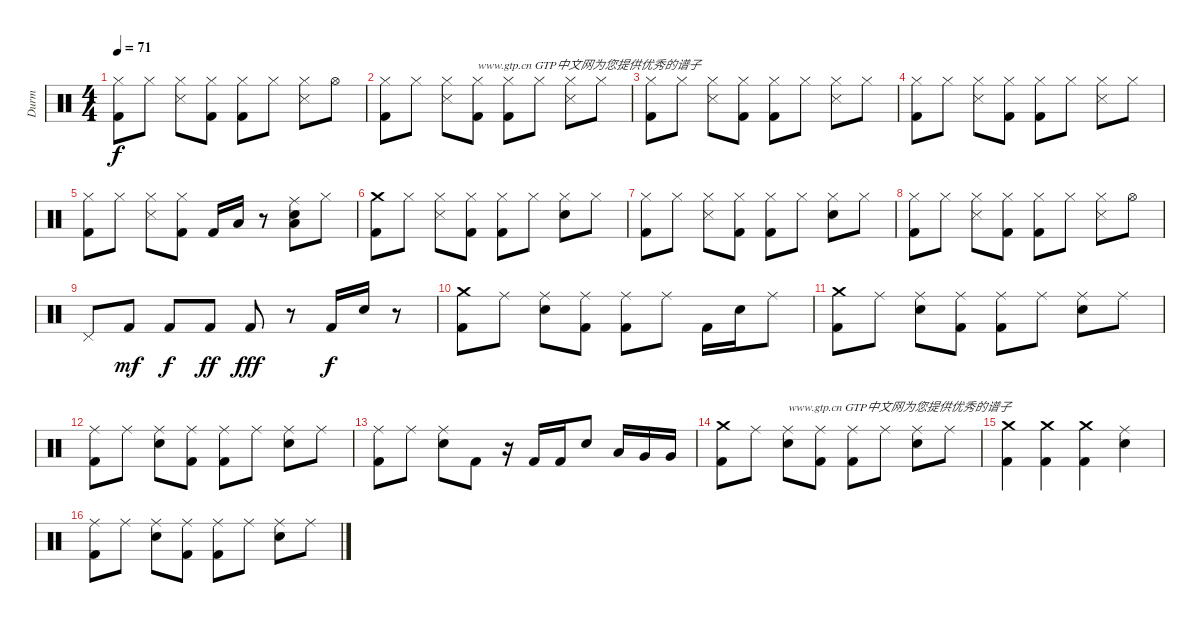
\track ("Durm" "Durm") {instrument percussion}
\staff {score}
\articulation defaults
\ts (4 4)
\tempo 71
\clef neutral
\ks c
("Kick (hit) 2" "Hi-Hat (closed)").8{dy f} "Hi-Hat (closed)".8 ("Snare (side stick) 3" "Hi-Hat (closed)").8 ("Kick (hit) 2" "Hi-Hat (closed)").8 ("Kick (hit) 2" "Hi-Hat (closed)").8 "Hi-Hat (closed)".8 ("Snare (side stick) 3" "Hi-Hat (closed)").8 "Hi-Hat (open)".8 |
("Kick (hit) 2" "Hi-Hat (closed)").8 "Hi-Hat (closed)".8 ("Snare (side stick) 3" "Hi-Hat (closed)").8 ("Kick (hit) 2" "Hi-Hat (closed)").8{txt "www.gtp.cn GTP中文网为您提供优秀的谱子"} ("Kick (hit) 2" "Hi-Hat (closed)").8 "Hi-Hat (closed)".8 ("Snare (side stick) 3" "Hi-Hat (closed)").8 "Hi-Hat (closed)".8 |
("Kick (hit) 2" "Hi-Hat (closed)").8 "Hi-Hat (closed)".8 ("Snare (side stick) 3" "Hi-Hat (closed)").8 ("Kick (hit) 2" "Hi-Hat (closed)").8 ("Kick (hit) 2" "Hi-Hat (closed)").8 "Hi-Hat (closed)".8 ("Snare (side stick) 3" "Hi-Hat (closed)").8 "Hi-Hat (closed)".8 |
("Kick (hit) 2" "Hi-Hat (closed)").8 "Hi-Hat (closed)".8 ("Snare (side stick) 3" "Hi-Hat (closed)").8 ("Kick (hit) 2" "Hi-Hat (closed)").8 ("Kick (hit) 2" "Hi-Hat (closed)").8 "Hi-Hat (closed)".8 ("Snare (side stick) 3" "Hi-Hat (closed)").8 "Hi-Hat (closed)".8 |
("Kick (hit) 2" "Hi-Hat (closed)").8 "Hi-Hat (closed)".8 ("Snare (side stick) 3" "Hi-Hat (closed)").8 ("Kick (hit) 2" "Hi-Hat (closed)").8 "Kick (hit) 2".16 "Low Tom (hit)".16 r.8 ("Snare (hit) 2" "Low Tom (hit)" "Ride (middle)").8 "Hi-Hat (closed)".8 |
("Kick (hit) 2" "Crash medium (hit)").8 "Hi-Hat (closed)".8 ("Snare (side stick) 3" "Hi-Hat (closed)").8 ("Kick (hit) 2" "Hi-Hat (closed)").8 ("Kick (hit) 2" "Hi-Hat (closed)").8 "Hi-Hat (closed)".8 ("Electric Snare (hit)" "Hi-Hat (closed)").8 "Hi-Hat (closed)".8 |
("Kick (hit) 2" "Hi-Hat (closed)").8 "Hi-Hat (closed)".8 ("Snare (side stick) 3" "Hi-Hat (closed)").8 ("Kick (hit) 2" "Hi-Hat (closed)").8 ("Kick (hit) 2" "Hi-Hat (closed)").8 "Hi-Hat (closed)".8 ("Electric Snare (hit)" "Hi-Hat (closed)").8 "Hi-Hat (closed)".8 |
("Kick (hit) 2" "Hi-Hat (closed)").8 "Hi-Hat (closed)".8 ("Snare (side stick) 3" "Hi-Hat (closed)").8 ("Kick (hit) 2" "Hi-Hat (closed)").8 ("Kick (hit) 2" "Hi-Hat (closed)").8 "Hi-Hat (closed)".8 ("Snare (side stick) 3" "Hi-Hat (closed)").8 "Hi-Hat (open)".8 |
"Pedal Hi-Hat (hit)".8 "Kick (hit) 2".8{dy mf} "Kick (hit) 2".8{dy f} "Kick (hit) 2".8{dy ff} "Kick (hit) 2".8{dy fff} r.8 "Kick (hit) 2".16{dy f} "Electric Snare (hit)".16 r.8 |
("Kick (hit) 2" "Crash medium (hit)").8 "Ride (middle)".8 ("Electric Snare (hit)" "Ride (middle)").8 ("Kick (hit) 2" "Ride (middle)").8 ("Kick (hit) 2" "Ride (middle)").8 "Ride (middle)".8 "Kick (hit) 2".16 "Electric Snare (hit)".16 "Ride (middle)".8 |
("Kick (hit) 2" "Crash medium (hit)").8 "Ride (middle)".8 ("Electric Snare (hit)" "Ride (middle)").8 ("Kick (hit) 2" "Ride (middle)").8 ("Kick (hit) 2" "Ride (middle)").8 "Ride (middle)".8 ("Electric Snare (hit)" "Ride (middle)").8 "Ride (middle)".8 |
("Kick (hit) 2" "Ride (middle)").8 "Ride (middle)".8 ("Electric Snare (hit)" "Ride (middle)").8 ("Kick (hit) 2" "Ride (middle)").8 ("Kick (hit) 2" "Ride (middle)").8 "Ride (middle)".8 ("Electric Snare (hit)" "Ride (middle)").8 "Ride (middle)".8 |
("Kick (hit) 2" "Ride (middle)").8 "Ride (middle)".8 ("Electric Snare (hit)" "Ride (middle)").8 "Kick (hit) 2".8 r.16 "Kick (hit) 2".16 "Kick (hit) 2".16 "Electric Snare (hit)".8 "Low Tom (hit)".16 "Very Low Tom (hit)".16 "Very Low Tom (hit)".16 |
("Kick (hit) 2" "Crash medium (hit)").8 "Ride (middle)".8 ("Electric Snare (hit)" "Ride (middle)").8{txt "www.gtp.cn GTP中文网为您提供优秀的谱子"} ("Kick (hit) 2" "Ride (middle)").8 ("Kick (hit) 2" "Ride (middle)").8 "Ride (middle)".8 ("Electric Snare (hit)" "Ride (middle)").8 "Ride (middle)".8 |
("Kick (hit) 2" "Crash medium (hit)").4 ("Kick (hit) 2" "Crash medium (hit)").4 ("Kick (hit) 2" "Crash medium (hit)").4 ("Electric Snare (hit)" "Ride (middle)").4 |
("Kick (hit) 2" "Ride (middle)").8 "Ride (middle)".8 ("Electric Snare (hit)" "Ride (middle)").8 ("Kick (hit) 2" "Ride (middle)").8 ("Kick (hit) 2" "Ride (middle)").8 "Ride (middle)".8 ("Electric Snare (hit)" "Ride (middle)").8 "Ride (middle)".8
